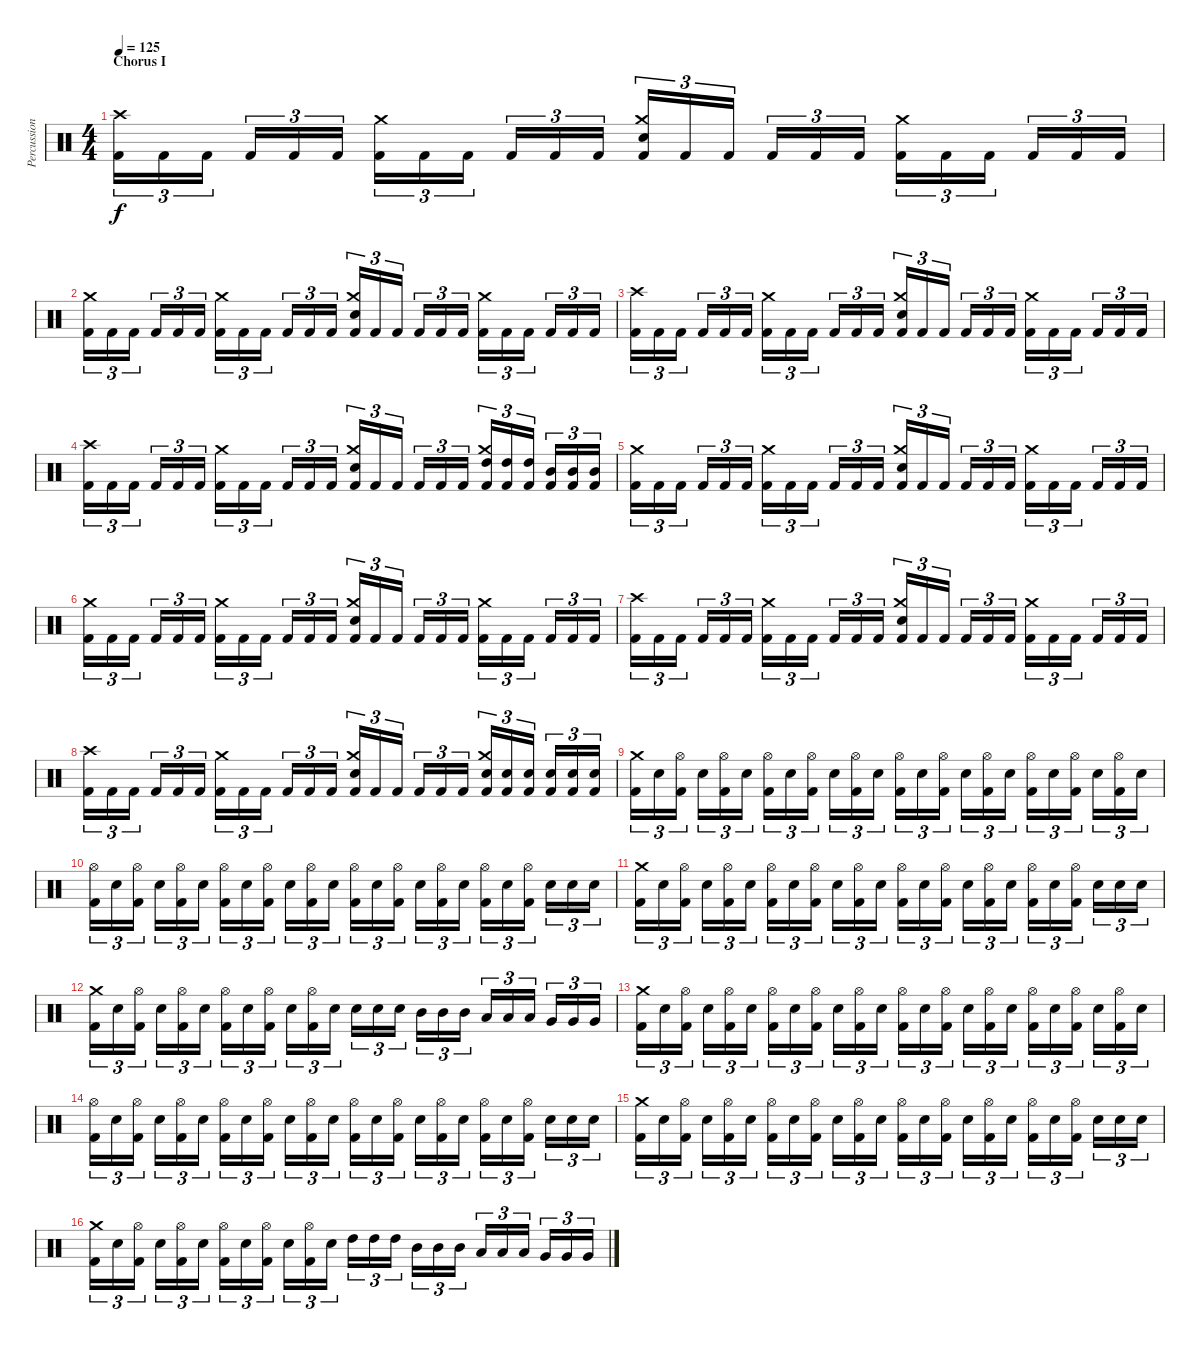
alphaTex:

\track ("Percussion" "Percussion") {instrument percussion}
\staff {score}
\articulation defaults
\ts (4 4)
\section ("" "Chorus I")
\tempo 125
\clef neutral
\ks c
("Kick (hit) 2" "Crash high (hit)").16{tu (3 2) dy f} "Kick (hit) 2".16{tu (3 2)} "Kick (hit) 2".16{tu (3 2)} "Kick (hit) 2".16{tu (3 2)} "Kick (hit) 2".16{tu (3 2)} "Kick (hit) 2".16{tu (3 2)} ("Kick (hit) 2" "Crash medium (hit)").16{tu (3 2)} "Kick (hit) 2".16{tu (3 2)} "Kick (hit) 2".16{tu (3 2)} "Kick (hit) 2".16{tu (3 2)} "Kick (hit) 2".16{tu (3 2)} "Kick (hit) 2".16{tu (3 2)} ("Kick (hit) 2" "Electric Snare (hit)" "Crash medium (hit)").16{tu (3 2)} "Kick (hit) 2".16{tu (3 2)} "Kick (hit) 2".16{tu (3 2)} "Kick (hit) 2".16{tu (3 2)} "Kick (hit) 2".16{tu (3 2)} "Kick (hit) 2".16{tu (3 2)} ("Kick (hit) 2" "Crash medium (hit)").16{tu (3 2)} "Kick (hit) 2".16{tu (3 2)} "Kick (hit) 2".16{tu (3 2)} "Kick (hit) 2".16{tu (3 2)} "Kick (hit) 2".16{tu (3 2)} "Kick (hit) 2".16{tu (3 2)} |
("Kick (hit) 2" "Crash medium (hit)").16{tu (3 2)} "Kick (hit) 2".16{tu (3 2)} "Kick (hit) 2".16{tu (3 2)} "Kick (hit) 2".16{tu (3 2)} "Kick (hit) 2".16{tu (3 2)} "Kick (hit) 2".16{tu (3 2)} ("Kick (hit) 2" "Crash medium (hit)").16{tu (3 2)} "Kick (hit) 2".16{tu (3 2)} "Kick (hit) 2".16{tu (3 2)} "Kick (hit) 2".16{tu (3 2)} "Kick (hit) 2".16{tu (3 2)} "Kick (hit) 2".16{tu (3 2)} ("Kick (hit) 2" "Electric Snare (hit)" "Crash medium (hit)").16{tu (3 2)} "Kick (hit) 2".16{tu (3 2)} "Kick (hit) 2".16{tu (3 2)} "Kick (hit) 2".16{tu (3 2)} "Kick (hit) 2".16{tu (3 2)} "Kick (hit) 2".16{tu (3 2)} ("Kick (hit) 2" "Crash medium (hit)").16{tu (3 2)} "Kick (hit) 2".16{tu (3 2)} "Kick (hit) 2".16{tu (3 2)} "Kick (hit) 2".16{tu (3 2)} "Kick (hit) 2".16{tu (3 2)} "Kick (hit) 2".16{tu (3 2)} |
("Kick (hit) 2" "Crash high (hit)").16{tu (3 2)} "Kick (hit) 2".16{tu (3 2)} "Kick (hit) 2".16{tu (3 2)} "Kick (hit) 2".16{tu (3 2)} "Kick (hit) 2".16{tu (3 2)} "Kick (hit) 2".16{tu (3 2)} ("Kick (hit) 2" "Crash medium (hit)").16{tu (3 2)} "Kick (hit) 2".16{tu (3 2)} "Kick (hit) 2".16{tu (3 2)} "Kick (hit) 2".16{tu (3 2)} "Kick (hit) 2".16{tu (3 2)} "Kick (hit) 2".16{tu (3 2)} ("Kick (hit) 2" "Electric Snare (hit)" "Crash medium (hit)").16{tu (3 2)} "Kick (hit) 2".16{tu (3 2)} "Kick (hit) 2".16{tu (3 2)} "Kick (hit) 2".16{tu (3 2)} "Kick (hit) 2".16{tu (3 2)} "Kick (hit) 2".16{tu (3 2)} ("Kick (hit) 2" "Crash medium (hit)").16{tu (3 2)} "Kick (hit) 2".16{tu (3 2)} "Kick (hit) 2".16{tu (3 2)} "Kick (hit) 2".16{tu (3 2)} "Kick (hit) 2".16{tu (3 2)} "Kick (hit) 2".16{tu (3 2)} |
("Kick (hit) 2" "Crash high (hit)").16{tu (3 2)} "Kick (hit) 2".16{tu (3 2)} "Kick (hit) 2".16{tu (3 2)} "Kick (hit) 2".16{tu (3 2)} "Kick (hit) 2".16{tu (3 2)} "Kick (hit) 2".16{tu (3 2)} ("Kick (hit) 2" "Crash medium (hit)").16{tu (3 2)} "Kick (hit) 2".16{tu (3 2)} "Kick (hit) 2".16{tu (3 2)} "Kick (hit) 2".16{tu (3 2)} "Kick (hit) 2".16{tu (3 2)} "Kick (hit) 2".16{tu (3 2)} ("Kick (hit) 2" "Electric Snare (hit)" "Crash medium (hit)").16{tu (3 2)} "Kick (hit) 2".16{tu (3 2)} "Kick (hit) 2".16{tu (3 2)} "Kick (hit) 2".16{tu (3 2)} "Kick (hit) 2".16{tu (3 2)} "Kick (hit) 2".16{tu (3 2)} ("Kick (hit) 2" "High Tom (hit)" "Crash medium (hit)").16{tu (3 2)} ("Kick (hit) 2" "High Tom (hit)").16{tu (3 2)} ("Kick (hit) 2" "High Tom (hit)").16{tu (3 2)} ("Kick (hit) 2" "Mid Tom (hit)").16{tu (3 2)} ("Kick (hit) 2" "Mid Tom (hit)").16{tu (3 2)} ("Kick (hit) 2" "Mid Tom (hit)").16{tu (3 2)} |
("Kick (hit) 2" "Crash medium (hit)").16{tu (3 2)} "Kick (hit) 2".16{tu (3 2)} "Kick (hit) 2".16{tu (3 2)} "Kick (hit) 2".16{tu (3 2)} "Kick (hit) 2".16{tu (3 2)} "Kick (hit) 2".16{tu (3 2)} ("Kick (hit) 2" "Crash medium (hit)").16{tu (3 2)} "Kick (hit) 2".16{tu (3 2)} "Kick (hit) 2".16{tu (3 2)} "Kick (hit) 2".16{tu (3 2)} "Kick (hit) 2".16{tu (3 2)} "Kick (hit) 2".16{tu (3 2)} ("Kick (hit) 2" "Electric Snare (hit)" "Crash medium (hit)").16{tu (3 2)} "Kick (hit) 2".16{tu (3 2)} "Kick (hit) 2".16{tu (3 2)} "Kick (hit) 2".16{tu (3 2)} "Kick (hit) 2".16{tu (3 2)} "Kick (hit) 2".16{tu (3 2)} ("Kick (hit) 2" "Crash medium (hit)").16{tu (3 2)} "Kick (hit) 2".16{tu (3 2)} "Kick (hit) 2".16{tu (3 2)} "Kick (hit) 2".16{tu (3 2)} "Kick (hit) 2".16{tu (3 2)} "Kick (hit) 2".16{tu (3 2)} |
("Kick (hit) 2" "Crash medium (hit)").16{tu (3 2)} "Kick (hit) 2".16{tu (3 2)} "Kick (hit) 2".16{tu (3 2)} "Kick (hit) 2".16{tu (3 2)} "Kick (hit) 2".16{tu (3 2)} "Kick (hit) 2".16{tu (3 2)} ("Kick (hit) 2" "Crash medium (hit)").16{tu (3 2)} "Kick (hit) 2".16{tu (3 2)} "Kick (hit) 2".16{tu (3 2)} "Kick (hit) 2".16{tu (3 2)} "Kick (hit) 2".16{tu (3 2)} "Kick (hit) 2".16{tu (3 2)} ("Kick (hit) 2" "Electric Snare (hit)" "Crash medium (hit)").16{tu (3 2)} "Kick (hit) 2".16{tu (3 2)} "Kick (hit) 2".16{tu (3 2)} "Kick (hit) 2".16{tu (3 2)} "Kick (hit) 2".16{tu (3 2)} "Kick (hit) 2".16{tu (3 2)} ("Kick (hit) 2" "Crash medium (hit)").16{tu (3 2)} "Kick (hit) 2".16{tu (3 2)} "Kick (hit) 2".16{tu (3 2)} "Kick (hit) 2".16{tu (3 2)} "Kick (hit) 2".16{tu (3 2)} "Kick (hit) 2".16{tu (3 2)} |
("Kick (hit) 2" "Crash high (hit)").16{tu (3 2)} "Kick (hit) 2".16{tu (3 2)} "Kick (hit) 2".16{tu (3 2)} "Kick (hit) 2".16{tu (3 2)} "Kick (hit) 2".16{tu (3 2)} "Kick (hit) 2".16{tu (3 2)} ("Kick (hit) 2" "Crash medium (hit)").16{tu (3 2)} "Kick (hit) 2".16{tu (3 2)} "Kick (hit) 2".16{tu (3 2)} "Kick (hit) 2".16{tu (3 2)} "Kick (hit) 2".16{tu (3 2)} "Kick (hit) 2".16{tu (3 2)} ("Kick (hit) 2" "Electric Snare (hit)" "Crash medium (hit)").16{tu (3 2)} "Kick (hit) 2".16{tu (3 2)} "Kick (hit) 2".16{tu (3 2)} "Kick (hit) 2".16{tu (3 2)} "Kick (hit) 2".16{tu (3 2)} "Kick (hit) 2".16{tu (3 2)} ("Kick (hit) 2" "Crash medium (hit)").16{tu (3 2)} "Kick (hit) 2".16{tu (3 2)} "Kick (hit) 2".16{tu (3 2)} "Kick (hit) 2".16{tu (3 2)} "Kick (hit) 2".16{tu (3 2)} "Kick (hit) 2".16{tu (3 2)} |
("Kick (hit) 2" "Crash high (hit)").16{tu (3 2)} "Kick (hit) 2".16{tu (3 2)} "Kick (hit) 2".16{tu (3 2)} "Kick (hit) 2".16{tu (3 2)} "Kick (hit) 2".16{tu (3 2)} "Kick (hit) 2".16{tu (3 2)} ("Kick (hit) 2" "Crash medium (hit)").16{tu (3 2)} "Kick (hit) 2".16{tu (3 2)} "Kick (hit) 2".16{tu (3 2)} "Kick (hit) 2".16{tu (3 2)} "Kick (hit) 2".16{tu (3 2)} "Kick (hit) 2".16{tu (3 2)} ("Kick (hit) 2" "Electric Snare (hit)" "Crash medium (hit)").16{tu (3 2)} "Kick (hit) 2".16{tu (3 2)} "Kick (hit) 2".16{tu (3 2)} "Kick (hit) 2".16{tu (3 2)} "Kick (hit) 2".16{tu (3 2)} "Kick (hit) 2".16{tu (3 2)} ("Kick (hit) 2" "Electric Snare (hit)" "Crash medium (hit)").16{tu (3 2)} ("Kick (hit) 2" "Electric Snare (hit)").16{tu (3 2)} ("Kick (hit) 2" "Electric Snare (hit)").16{tu (3 2)} ("Kick (hit) 2" "Electric Snare (hit)").16{tu (3 2)} ("Kick (hit) 2" "Electric Snare (hit)").16{tu (3 2)} ("Kick (hit) 2" "Electric Snare (hit)").16{tu (3 2)} |
("Kick (hit) 2" "Crash medium (hit)").16{tu (3 2)} "Electric Snare (hit)".16{tu (3 2)} ("Kick (hit) 2" "Hi-Hat (open)").16{tu (3 2)} "Electric Snare (hit)".16{tu (3 2)} ("Kick (hit) 2" "Hi-Hat (open)").16{tu (3 2)} "Electric Snare (hit)".16{tu (3 2)} ("Kick (hit) 2" "Hi-Hat (open)").16{tu (3 2)} "Electric Snare (hit)".16{tu (3 2)} ("Kick (hit) 2" "Hi-Hat (open)").16{tu (3 2)} "Electric Snare (hit)".16{tu (3 2)} ("Kick (hit) 2" "Hi-Hat (open)").16{tu (3 2)} "Electric Snare (hit)".16{tu (3 2)} ("Kick (hit) 2" "Hi-Hat (open)").16{tu (3 2)} "Electric Snare (hit)".16{tu (3 2)} ("Kick (hit) 2" "Hi-Hat (open)").16{tu (3 2)} "Electric Snare (hit)".16{tu (3 2)} ("Kick (hit) 2" "Hi-Hat (open)").16{tu (3 2)} "Electric Snare (hit)".16{tu (3 2)} ("Kick (hit) 2" "Hi-Hat (open)").16{tu (3 2)} "Electric Snare (hit)".16{tu (3 2)} ("Kick (hit) 2" "Hi-Hat (open)").16{tu (3 2)} "Electric Snare (hit)".16{tu (3 2)} ("Kick (hit) 2" "Hi-Hat (open)").16{tu (3 2)} "Electric Snare (hit)".16{tu (3 2)} |
("Kick (hit) 2" "Hi-Hat (open)").16{tu (3 2)} "Electric Snare (hit)".16{tu (3 2)} ("Kick (hit) 2" "Hi-Hat (open)").16{tu (3 2)} "Electric Snare (hit)".16{tu (3 2)} ("Kick (hit) 2" "Hi-Hat (open)").16{tu (3 2)} "Electric Snare (hit)".16{tu (3 2)} ("Kick (hit) 2" "Hi-Hat (open)").16{tu (3 2)} "Electric Snare (hit)".16{tu (3 2)} ("Kick (hit) 2" "Hi-Hat (open)").16{tu (3 2)} "Electric Snare (hit)".16{tu (3 2)} ("Kick (hit) 2" "Hi-Hat (open)").16{tu (3 2)} "Electric Snare (hit)".16{tu (3 2)} ("Kick (hit) 2" "Hi-Hat (open)").16{tu (3 2)} "Electric Snare (hit)".16{tu (3 2)} ("Kick (hit) 2" "Hi-Hat (open)").16{tu (3 2)} "Electric Snare (hit)".16{tu (3 2)} ("Kick (hit) 2" "Hi-Hat (open)").16{tu (3 2)} "Electric Snare (hit)".16{tu (3 2)} ("Kick (hit) 2" "Hi-Hat (open)").16{tu (3 2)} "Electric Snare (hit)".16{tu (3 2)} ("Kick (hit) 2" "Hi-Hat (open)").16{tu (3 2)} "Electric Snare (hit)".16{tu (3 2)} "Electric Snare (hit)".16{tu (3 2)} "Electric Snare (hit)".16{tu (3 2)} |
("Kick (hit) 2" "Crash medium (hit)").16{tu (3 2)} "Electric Snare (hit)".16{tu (3 2)} ("Kick (hit) 2" "Hi-Hat (open)").16{tu (3 2)} "Electric Snare (hit)".16{tu (3 2)} ("Kick (hit) 2" "Hi-Hat (open)").16{tu (3 2)} "Electric Snare (hit)".16{tu (3 2)} ("Kick (hit) 2" "Hi-Hat (open)").16{tu (3 2)} "Electric Snare (hit)".16{tu (3 2)} ("Kick (hit) 2" "Hi-Hat (open)").16{tu (3 2)} "Electric Snare (hit)".16{tu (3 2)} ("Kick (hit) 2" "Hi-Hat (open)").16{tu (3 2)} "Electric Snare (hit)".16{tu (3 2)} ("Kick (hit) 2" "Hi-Hat (open)").16{tu (3 2)} "Electric Snare (hit)".16{tu (3 2)} ("Kick (hit) 2" "Hi-Hat (open)").16{tu (3 2)} "Electric Snare (hit)".16{tu (3 2)} ("Kick (hit) 2" "Hi-Hat (open)").16{tu (3 2)} "Electric Snare (hit)".16{tu (3 2)} ("Kick (hit) 2" "Hi-Hat (open)").16{tu (3 2)} "Electric Snare (hit)".16{tu (3 2)} ("Kick (hit) 2" "Hi-Hat (open)").16{tu (3 2)} "Electric Snare (hit)".16{tu (3 2)} "Electric Snare (hit)".16{tu (3 2)} "Electric Snare (hit)".16{tu (3 2)} |
("Kick (hit) 2" "Crash medium (hit)").16{tu (3 2)} "Electric Snare (hit)".16{tu (3 2)} ("Kick (hit) 2" "Hi-Hat (open)").16{tu (3 2)} "Electric Snare (hit)".16{tu (3 2)} ("Kick (hit) 2" "Hi-Hat (open)").16{tu (3 2)} "Electric Snare (hit)".16{tu (3 2)} ("Kick (hit) 2" "Hi-Hat (open)").16{tu (3 2)} "Electric Snare (hit)".16{tu (3 2)} ("Kick (hit) 2" "Hi-Hat (open)").16{tu (3 2)} "Electric Snare (hit)".16{tu (3 2)} ("Kick (hit) 2" "Hi-Hat (open)").16{tu (3 2)} "Electric Snare (hit)".16{tu (3 2)} "Electric Snare (hit)".16{tu (3 2)} "Electric Snare (hit)".16{tu (3 2)} "Electric Snare (hit)".16{tu (3 2)} "Mid Tom (hit)".16{tu (3 2)} "Mid Tom (hit)".16{tu (3 2)} "Mid Tom (hit)".16{tu (3 2)} "Low Tom (hit)".16{tu (3 2)} "Low Tom (hit)".16{tu (3 2)} "Low Tom (hit)".16{tu (3 2)} "Very Low Tom (hit)".16{tu (3 2)} "Very Low Tom (hit)".16{tu (3 2)} "Very Low Tom (hit)".16{tu (3 2)} |
("Kick (hit) 2" "Crash medium (hit)").16{tu (3 2)} "Electric Snare (hit)".16{tu (3 2)} ("Kick (hit) 2" "Hi-Hat (open)").16{tu (3 2)} "Electric Snare (hit)".16{tu (3 2)} ("Kick (hit) 2" "Hi-Hat (open)").16{tu (3 2)} "Electric Snare (hit)".16{tu (3 2)} ("Kick (hit) 2" "Hi-Hat (open)").16{tu (3 2)} "Electric Snare (hit)".16{tu (3 2)} ("Kick (hit) 2" "Hi-Hat (open)").16{tu (3 2)} "Electric Snare (hit)".16{tu (3 2)} ("Kick (hit) 2" "Hi-Hat (open)").16{tu (3 2)} "Electric Snare (hit)".16{tu (3 2)} ("Kick (hit) 2" "Hi-Hat (open)").16{tu (3 2)} "Electric Snare (hit)".16{tu (3 2)} ("Kick (hit) 2" "Hi-Hat (open)").16{tu (3 2)} "Electric Snare (hit)".16{tu (3 2)} ("Kick (hit) 2" "Hi-Hat (open)").16{tu (3 2)} "Electric Snare (hit)".16{tu (3 2)} ("Kick (hit) 2" "Hi-Hat (open)").16{tu (3 2)} "Electric Snare (hit)".16{tu (3 2)} ("Kick (hit) 2" "Hi-Hat (open)").16{tu (3 2)} "Electric Snare (hit)".16{tu (3 2)} ("Kick (hit) 2" "Hi-Hat (open)").16{tu (3 2)} "Electric Snare (hit)".16{tu (3 2)} |
("Kick (hit) 2" "Hi-Hat (open)").16{tu (3 2)} "Electric Snare (hit)".16{tu (3 2)} ("Kick (hit) 2" "Hi-Hat (open)").16{tu (3 2)} "Electric Snare (hit)".16{tu (3 2)} ("Kick (hit) 2" "Hi-Hat (open)").16{tu (3 2)} "Electric Snare (hit)".16{tu (3 2)} ("Kick (hit) 2" "Hi-Hat (open)").16{tu (3 2)} "Electric Snare (hit)".16{tu (3 2)} ("Kick (hit) 2" "Hi-Hat (open)").16{tu (3 2)} "Electric Snare (hit)".16{tu (3 2)} ("Kick (hit) 2" "Hi-Hat (open)").16{tu (3 2)} "Electric Snare (hit)".16{tu (3 2)} ("Kick (hit) 2" "Hi-Hat (open)").16{tu (3 2)} "Electric Snare (hit)".16{tu (3 2)} ("Kick (hit) 2" "Hi-Hat (open)").16{tu (3 2)} "Electric Snare (hit)".16{tu (3 2)} ("Kick (hit) 2" "Hi-Hat (open)").16{tu (3 2)} "Electric Snare (hit)".16{tu (3 2)} ("Kick (hit) 2" "Hi-Hat (open)").16{tu (3 2)} "Electric Snare (hit)".16{tu (3 2)} ("Kick (hit) 2" "Hi-Hat (open)").16{tu (3 2)} "Electric Snare (hit)".16{tu (3 2)} "Electric Snare (hit)".16{tu (3 2)} "Electric Snare (hit)".16{tu (3 2)} |
("Kick (hit) 2" "Crash medium (hit)").16{tu (3 2)} "Electric Snare (hit)".16{tu (3 2)} ("Kick (hit) 2" "Hi-Hat (open)").16{tu (3 2)} "Electric Snare (hit)".16{tu (3 2)} ("Kick (hit) 2" "Hi-Hat (open)").16{tu (3 2)} "Electric Snare (hit)".16{tu (3 2)} ("Kick (hit) 2" "Hi-Hat (open)").16{tu (3 2)} "Electric Snare (hit)".16{tu (3 2)} ("Kick (hit) 2" "Hi-Hat (open)").16{tu (3 2)} "Electric Snare (hit)".16{tu (3 2)} ("Kick (hit) 2" "Hi-Hat (open)").16{tu (3 2)} "Electric Snare (hit)".16{tu (3 2)} ("Kick (hit) 2" "Hi-Hat (open)").16{tu (3 2)} "Electric Snare (hit)".16{tu (3 2)} ("Kick (hit) 2" "Hi-Hat (open)").16{tu (3 2)} "Electric Snare (hit)".16{tu (3 2)} ("Kick (hit) 2" "Hi-Hat (open)").16{tu (3 2)} "Electric Snare (hit)".16{tu (3 2)} ("Kick (hit) 2" "Hi-Hat (open)").16{tu (3 2)} "Electric Snare (hit)".16{tu (3 2)} ("Kick (hit) 2" "Hi-Hat (open)").16{tu (3 2)} "Electric Snare (hit)".16{tu (3 2)} "Electric Snare (hit)".16{tu (3 2)} "Electric Snare (hit)".16{tu (3 2)} |
("Kick (hit) 2" "Crash medium (hit)").16{tu (3 2)} "Electric Snare (hit)".16{tu (3 2)} ("Kick (hit) 2" "Hi-Hat (open)").16{tu (3 2)} "Electric Snare (hit)".16{tu (3 2)} ("Kick (hit) 2" "Hi-Hat (open)").16{tu (3 2)} "Electric Snare (hit)".16{tu (3 2)} ("Kick (hit) 2" "Hi-Hat (open)").16{tu (3 2)} "Electric Snare (hit)".16{tu (3 2)} ("Kick (hit) 2" "Hi-Hat (open)").16{tu (3 2)} "Electric Snare (hit)".16{tu (3 2)} ("Kick (hit) 2" "Hi-Hat (open)").16{tu (3 2)} "Electric Snare (hit)".16{tu (3 2)} "High Tom (hit)".16{tu (3 2)} "High Tom (hit)".16{tu (3 2)} "High Tom (hit)".16{tu (3 2)} "Mid Tom (hit)".16{tu (3 2)} "Mid Tom (hit)".16{tu (3 2)} "Mid Tom (hit)".16{tu (3 2)} "Low Tom (hit)".16{tu (3 2)} "Low Tom (hit)".16{tu (3 2)} "Low Tom (hit)".16{tu (3 2)} "Very Low Tom (hit)".16{tu (3 2)} "Very Low Tom (hit)".16{tu (3 2)} "Very Low Tom (hit)".16{tu (3 2)}
